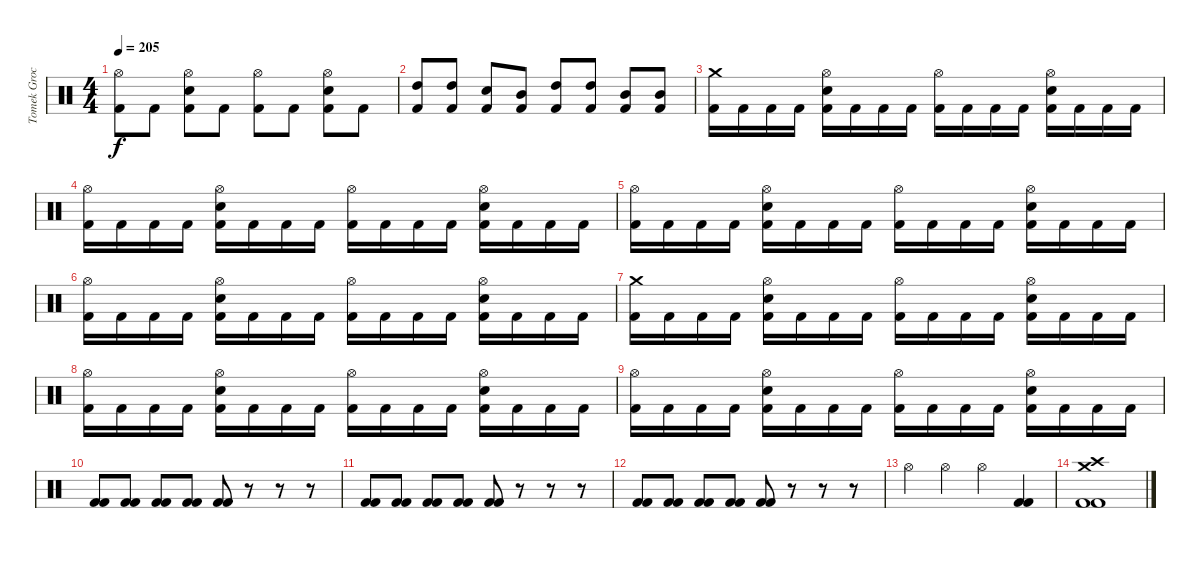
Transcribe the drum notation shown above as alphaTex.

\track ("Tomek Grochowski" "Tomek Groc") {instrument percussion}
\staff {score}
\articulation defaults
\ts (4 4)
\tempo 205
\clef neutral
\ks c
("Hi-Hat (open)" "Kick (hit) 2").8{dy f} "Kick (hit) 2".8 ("Hi-Hat (open)" "Electric Snare (hit)" "Kick (hit) 2").8 "Kick (hit) 2".8 ("Hi-Hat (open)" "Kick (hit) 2").8 "Kick (hit) 2".8 ("Hi-Hat (open)" "Electric Snare (hit)" "Kick (hit) 2").8 "Kick (hit) 2".8 |
("High Tom (hit)" "Kick (hit) 2").8 ("High Tom (hit)" "Kick (hit) 2").8 ("Electric Snare (hit)" "Kick (hit) 2").8 ("Mid Tom (hit)" "Kick (hit) 2").8 ("High Tom (hit)" "Kick (hit) 2").8 ("High Tom (hit)" "Kick (hit) 2").8 ("Mid Tom (hit)" "Kick (hit) 2").8 ("Mid Tom (hit)" "Kick (hit) 2").8 |
("Crash medium (hit)" "Kick (hit) 2").16 "Kick (hit) 2".16 "Kick (hit) 2".16 "Kick (hit) 2".16 ("Hi-Hat (open)" "Electric Snare (hit)" "Kick (hit) 2").16 "Kick (hit) 2".16 "Kick (hit) 2".16 "Kick (hit) 2".16 ("Hi-Hat (open)" "Kick (hit) 2").16 "Kick (hit) 2".16 "Kick (hit) 2".16 "Kick (hit) 2".16 ("Hi-Hat (open)" "Electric Snare (hit)" "Kick (hit) 2").16 "Kick (hit) 2".16 "Kick (hit) 2".16 "Kick (hit) 2".16 |
("Hi-Hat (open)" "Kick (hit) 2").16 "Kick (hit) 2".16 "Kick (hit) 2".16 "Kick (hit) 2".16 ("Hi-Hat (open)" "Electric Snare (hit)" "Kick (hit) 2").16 "Kick (hit) 2".16 "Kick (hit) 2".16 "Kick (hit) 2".16 ("Hi-Hat (open)" "Kick (hit) 2").16 "Kick (hit) 2".16 "Kick (hit) 2".16 "Kick (hit) 2".16 ("Hi-Hat (open)" "Electric Snare (hit)" "Kick (hit) 2").16 "Kick (hit) 2".16 "Kick (hit) 2".16 "Kick (hit) 2".16 |
("Hi-Hat (open)" "Kick (hit) 2").16 "Kick (hit) 2".16 "Kick (hit) 2".16 "Kick (hit) 2".16 ("Hi-Hat (open)" "Electric Snare (hit)" "Kick (hit) 2").16 "Kick (hit) 2".16 "Kick (hit) 2".16 "Kick (hit) 2".16 ("Hi-Hat (open)" "Kick (hit) 2").16 "Kick (hit) 2".16 "Kick (hit) 2".16 "Kick (hit) 2".16 ("Hi-Hat (open)" "Electric Snare (hit)" "Kick (hit) 2").16 "Kick (hit) 2".16 "Kick (hit) 2".16 "Kick (hit) 2".16 |
("Hi-Hat (open)" "Kick (hit) 2").16 "Kick (hit) 2".16 "Kick (hit) 2".16 "Kick (hit) 2".16 ("Hi-Hat (open)" "Electric Snare (hit)" "Kick (hit) 2").16 "Kick (hit) 2".16 "Kick (hit) 2".16 "Kick (hit) 2".16 ("Hi-Hat (open)" "Kick (hit) 2").16 "Kick (hit) 2".16 "Kick (hit) 2".16 "Kick (hit) 2".16 ("Hi-Hat (open)" "Electric Snare (hit)" "Kick (hit) 2").16 "Kick (hit) 2".16 "Kick (hit) 2".16 "Kick (hit) 2".16 |
("Crash medium (hit)" "Kick (hit) 2").16 "Kick (hit) 2".16 "Kick (hit) 2".16 "Kick (hit) 2".16 ("Hi-Hat (open)" "Electric Snare (hit)" "Kick (hit) 2").16 "Kick (hit) 2".16 "Kick (hit) 2".16 "Kick (hit) 2".16 ("Hi-Hat (open)" "Kick (hit) 2").16 "Kick (hit) 2".16 "Kick (hit) 2".16 "Kick (hit) 2".16 ("Hi-Hat (open)" "Electric Snare (hit)" "Kick (hit) 2").16 "Kick (hit) 2".16 "Kick (hit) 2".16 "Kick (hit) 2".16 |
("Hi-Hat (open)" "Kick (hit) 2").16 "Kick (hit) 2".16 "Kick (hit) 2".16 "Kick (hit) 2".16 ("Hi-Hat (open)" "Electric Snare (hit)" "Kick (hit) 2").16 "Kick (hit) 2".16 "Kick (hit) 2".16 "Kick (hit) 2".16 ("Hi-Hat (open)" "Kick (hit) 2").16 "Kick (hit) 2".16 "Kick (hit) 2".16 "Kick (hit) 2".16 ("Hi-Hat (open)" "Electric Snare (hit)" "Kick (hit) 2").16 "Kick (hit) 2".16 "Kick (hit) 2".16 "Kick (hit) 2".16 |
("Hi-Hat (open)" "Kick (hit) 2").16 "Kick (hit) 2".16 "Kick (hit) 2".16 "Kick (hit) 2".16 ("Hi-Hat (open)" "Electric Snare (hit)" "Kick (hit) 2").16 "Kick (hit) 2".16 "Kick (hit) 2".16 "Kick (hit) 2".16 ("Hi-Hat (open)" "Kick (hit) 2").16 "Kick (hit) 2".16 "Kick (hit) 2".16 "Kick (hit) 2".16 ("Hi-Hat (open)" "Electric Snare (hit)" "Kick (hit) 2").16 "Kick (hit) 2".16 "Kick (hit) 2".16 "Kick (hit) 2".16 |
("Kick (hit) 2" "Kick (hit) 2").8 ("Kick (hit) 2" "Kick (hit) 2").8 ("Kick (hit) 2" "Kick (hit) 2").8 ("Kick (hit) 2" "Kick (hit) 2").8 ("Kick (hit) 2" "Kick (hit) 2").8 r.8 r.8 r.8 |
("Kick (hit) 2" "Kick (hit) 2").8 ("Kick (hit) 2" "Kick (hit) 2").8 ("Kick (hit) 2" "Kick (hit) 2").8 ("Kick (hit) 2" "Kick (hit) 2").8 ("Kick (hit) 2" "Kick (hit) 2").8 r.8 r.8 r.8 |
("Kick (hit) 2" "Kick (hit) 2").8 ("Kick (hit) 2" "Kick (hit) 2").8 ("Kick (hit) 2" "Kick (hit) 2").8 ("Kick (hit) 2" "Kick (hit) 2").8 ("Kick (hit) 2" "Kick (hit) 2").8 r.8 r.8 r.8 |
"Hi-Hat (open)".4 "Hi-Hat (open)".4 "Hi-Hat (open)".4 ("Kick (hit) 2" "Kick (hit) 2").4 |
("Crash high (hit)" "Crash medium (hit)" "Kick (hit) 2" "Kick (hit) 2").1
